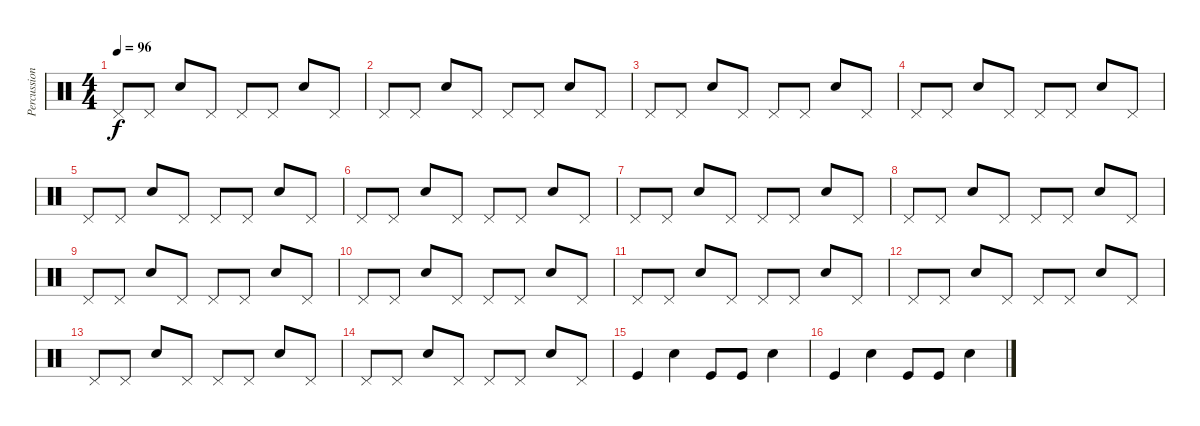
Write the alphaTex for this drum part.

\track ("Percussions" "Percussion") {instrument percussion}
\staff {score}
\articulation defaults
\ts (4 4)
\tempo 96
\clef neutral
\ks c "Pedal Hi-Hat (hit)".8{dy f} "Pedal Hi-Hat (hit)".8 "Snare (hit) 2".8 "Pedal Hi-Hat (hit)".8 "Pedal Hi-Hat (hit)".8 "Pedal Hi-Hat (hit)".8 "Snare (hit) 2".8 "Pedal Hi-Hat (hit)".8
|
"Pedal Hi-Hat (hit)".8 "Pedal Hi-Hat (hit)".8 "Snare (hit) 2".8 "Pedal Hi-Hat (hit)".8 "Pedal Hi-Hat (hit)".8 "Pedal Hi-Hat (hit)".8 "Snare (hit) 2".8 "Pedal Hi-Hat (hit)".8 |
"Pedal Hi-Hat (hit)".8 "Pedal Hi-Hat (hit)".8 "Snare (hit) 2".8 "Pedal Hi-Hat (hit)".8 "Pedal Hi-Hat (hit)".8 "Pedal Hi-Hat (hit)".8 "Snare (hit) 2".8 "Pedal Hi-Hat (hit)".8 |
"Pedal Hi-Hat (hit)".8 "Pedal Hi-Hat (hit)".8 "Snare (hit) 2".8 "Pedal Hi-Hat (hit)".8 "Pedal Hi-Hat (hit)".8 "Pedal Hi-Hat (hit)".8 "Snare (hit) 2".8 "Pedal Hi-Hat (hit)".8 |
"Pedal Hi-Hat (hit)".8 "Pedal Hi-Hat (hit)".8 "Snare (hit) 2".8 "Pedal Hi-Hat (hit)".8 "Pedal Hi-Hat (hit)".8 "Pedal Hi-Hat (hit)".8 "Snare (hit) 2".8 "Pedal Hi-Hat (hit)".8 |
"Pedal Hi-Hat (hit)".8 "Pedal Hi-Hat (hit)".8 "Snare (hit) 2".8 "Pedal Hi-Hat (hit)".8 "Pedal Hi-Hat (hit)".8 "Pedal Hi-Hat (hit)".8 "Snare (hit) 2".8 "Pedal Hi-Hat (hit)".8 |
"Pedal Hi-Hat (hit)".8 "Pedal Hi-Hat (hit)".8 "Snare (hit) 2".8 "Pedal Hi-Hat (hit)".8 "Pedal Hi-Hat (hit)".8 "Pedal Hi-Hat (hit)".8 "Snare (hit) 2".8 "Pedal Hi-Hat (hit)".8 |
"Pedal Hi-Hat (hit)".8 "Pedal Hi-Hat (hit)".8 "Snare (hit) 2".8 "Pedal Hi-Hat (hit)".8 "Pedal Hi-Hat (hit)".8 "Pedal Hi-Hat (hit)".8 "Snare (hit) 2".8 "Pedal Hi-Hat (hit)".8 |
"Pedal Hi-Hat (hit)".8 "Pedal Hi-Hat (hit)".8 "Snare (hit) 2".8 "Pedal Hi-Hat (hit)".8 "Pedal Hi-Hat (hit)".8 "Pedal Hi-Hat (hit)".8 "Snare (hit) 2".8 "Pedal Hi-Hat (hit)".8 |
"Pedal Hi-Hat (hit)".8 "Pedal Hi-Hat (hit)".8 "Snare (hit) 2".8 "Pedal Hi-Hat (hit)".8 "Pedal Hi-Hat (hit)".8 "Pedal Hi-Hat (hit)".8 "Snare (hit) 2".8 "Pedal Hi-Hat (hit)".8 |
"Pedal Hi-Hat (hit)".8 "Pedal Hi-Hat (hit)".8 "Snare (hit) 2".8 "Pedal Hi-Hat (hit)".8 "Pedal Hi-Hat (hit)".8 "Pedal Hi-Hat (hit)".8 "Snare (hit) 2".8 "Pedal Hi-Hat (hit)".8 |
"Pedal Hi-Hat (hit)".8 "Pedal Hi-Hat (hit)".8 "Snare (hit) 2".8 "Pedal Hi-Hat (hit)".8 "Pedal Hi-Hat (hit)".8 "Pedal Hi-Hat (hit)".8 "Snare (hit) 2".8 "Pedal Hi-Hat (hit)".8 |
"Pedal Hi-Hat (hit)".8 "Pedal Hi-Hat (hit)".8 "Snare (hit) 2".8 "Pedal Hi-Hat (hit)".8 "Pedal Hi-Hat (hit)".8 "Pedal Hi-Hat (hit)".8 "Snare (hit) 2".8 "Pedal Hi-Hat (hit)".8 |
"Pedal Hi-Hat (hit)".8 "Pedal Hi-Hat (hit)".8 "Snare (hit) 2".8 "Pedal Hi-Hat (hit)".8 "Pedal Hi-Hat (hit)".8 "Pedal Hi-Hat (hit)".8 "Snare (hit) 2".8 "Pedal Hi-Hat (hit)".8 |
"Kick (hit)".4 "Snare (hit) 2".4 "Kick (hit)".8 "Kick (hit)".8 "Snare (hit) 2".4 |
"Kick (hit)".4 "Snare (hit) 2".4 "Kick (hit)".8 "Kick (hit)".8 "Snare (hit) 2".4
